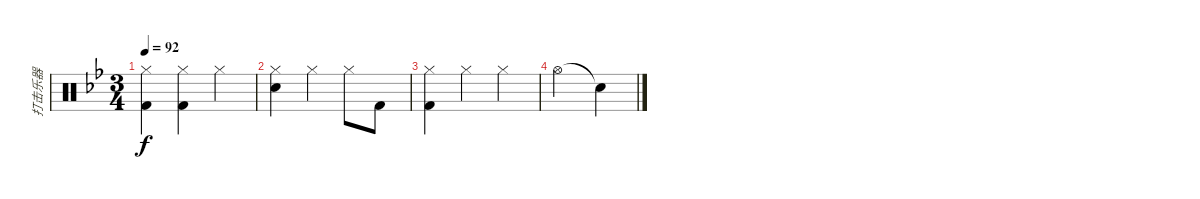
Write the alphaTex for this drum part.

\track ("打击乐器" "打击乐器") {instrument percussion}
\staff {score}
\articulation defaults
\ts (3 4)
\tempo 92
\clef neutral
\ks bb
("Hi-Hat (closed)" "Kick (hit) 2").4{dy f} ("Hi-Hat (closed)" "Kick (hit) 2").4 "Hi-Hat (closed)".4 |
("Hi-Hat (closed)" "Snare (hit) 2").4 "Hi-Hat (closed)".4 "Hi-Hat (closed)".8 "Kick (hit) 2".8 |
("Hi-Hat (closed)" "Kick (hit) 2").4 "Hi-Hat (closed)".4 "Hi-Hat (closed)".4 |
"Hi-Hat (open)".2 "Snare (hit)"{t}.4
